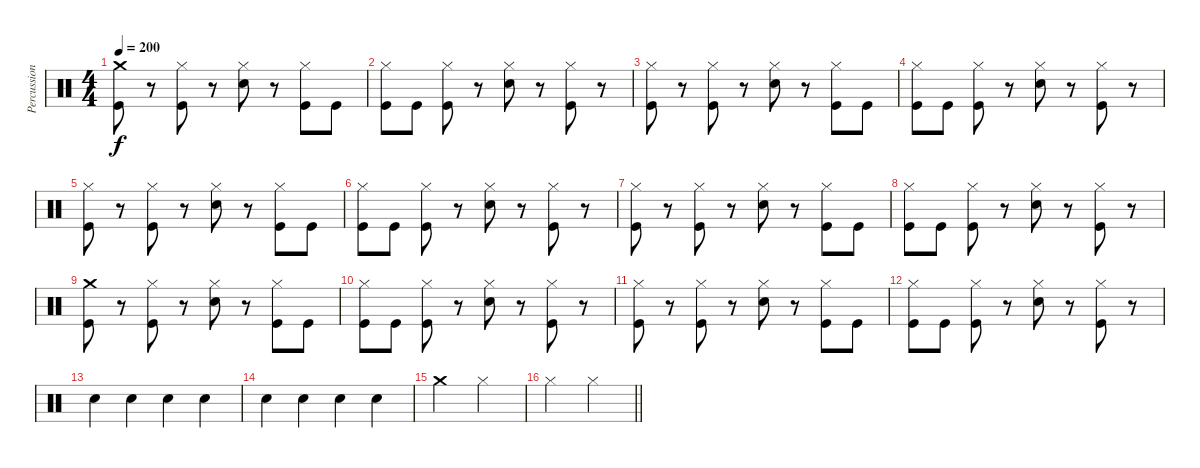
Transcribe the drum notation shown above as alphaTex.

\track ("Percussion" "Percussion") {instrument percussion}
\staff {score}
\articulation defaults
\ts (4 4)
\tempo 200
\clef neutral
\ks c
("Crash medium (hit)" "Kick (hit)").8{dy f} r.8 ("Hi-Hat (closed)" "Kick (hit)").8 r.8 ("Hi-Hat (closed)" "Snare (hit) 2").8 r.8 ("Hi-Hat (closed)" "Kick (hit)").8 "Kick (hit)".8 |
("Hi-Hat (closed)" "Kick (hit)").8 "Kick (hit)".8 ("Hi-Hat (closed)" "Kick (hit)").8 r.8 ("Hi-Hat (closed)" "Snare (hit) 2").8 r.8 ("Hi-Hat (closed)" "Kick (hit)").8 r.8 |
("Hi-Hat (closed)" "Kick (hit)").8 r.8 ("Hi-Hat (closed)" "Kick (hit)").8 r.8 ("Hi-Hat (closed)" "Snare (hit) 2").8 r.8 ("Hi-Hat (closed)" "Kick (hit)").8 "Kick (hit)".8 |
("Hi-Hat (closed)" "Kick (hit)").8 "Kick (hit)".8 ("Hi-Hat (closed)" "Kick (hit)").8 r.8 ("Hi-Hat (closed)" "Snare (hit) 2").8 r.8 ("Hi-Hat (closed)" "Kick (hit)").8 r.8 |
("Hi-Hat (closed)" "Kick (hit)").8 r.8 ("Hi-Hat (closed)" "Kick (hit)").8 r.8 ("Hi-Hat (closed)" "Snare (hit) 2").8 r.8 ("Hi-Hat (closed)" "Kick (hit)").8 "Kick (hit)".8 |
("Hi-Hat (closed)" "Kick (hit)").8 "Kick (hit)".8 ("Hi-Hat (closed)" "Kick (hit)").8 r.8 ("Hi-Hat (closed)" "Snare (hit) 2").8 r.8 ("Hi-Hat (closed)" "Kick (hit)").8 r.8 |
("Hi-Hat (closed)" "Kick (hit)").8 r.8 ("Hi-Hat (closed)" "Kick (hit)").8 r.8 ("Hi-Hat (closed)" "Snare (hit) 2").8 r.8 ("Hi-Hat (closed)" "Kick (hit)").8 "Kick (hit)".8 |
("Hi-Hat (closed)" "Kick (hit)").8 "Kick (hit)".8 ("Hi-Hat (closed)" "Kick (hit)").8 r.8 ("Hi-Hat (closed)" "Snare (hit) 2").8 r.8 ("Hi-Hat (closed)" "Kick (hit)").8 r.8 |
("Crash medium (hit)" "Kick (hit)").8 r.8 ("Hi-Hat (closed)" "Kick (hit)").8 r.8 ("Hi-Hat (closed)" "Snare (hit) 2").8 r.8 ("Hi-Hat (closed)" "Kick (hit)").8 "Kick (hit)".8 |
("Hi-Hat (closed)" "Kick (hit)").8 "Kick (hit)".8 ("Hi-Hat (closed)" "Kick (hit)").8 r.8 ("Hi-Hat (closed)" "Snare (hit) 2").8 r.8 ("Hi-Hat (closed)" "Kick (hit)").8 r.8 |
("Hi-Hat (closed)" "Kick (hit)").8 r.8 ("Hi-Hat (closed)" "Kick (hit)").8 r.8 ("Hi-Hat (closed)" "Snare (hit) 2").8 r.8 ("Hi-Hat (closed)" "Kick (hit)").8 "Kick (hit)".8 |
("Hi-Hat (closed)" "Kick (hit)").8 "Kick (hit)".8 ("Hi-Hat (closed)" "Kick (hit)").8 r.8 ("Hi-Hat (closed)" "Snare (hit) 2").8 r.8 ("Hi-Hat (closed)" "Kick (hit)").8 r.8 |
"Snare (hit) 2".4 "Snare (hit) 2".4 "Snare (hit) 2".4 "Snare (hit) 2".4 |
"Snare (hit) 2".4 "Snare (hit) 2".4 "Snare (hit) 2".4 "Snare (hit) 2".4 |
"Crash medium (hit)".2 "Hi-Hat (closed)".2 |
\barLineRight lightlight "Hi-Hat (closed)".2 "Hi-Hat (closed)".2
